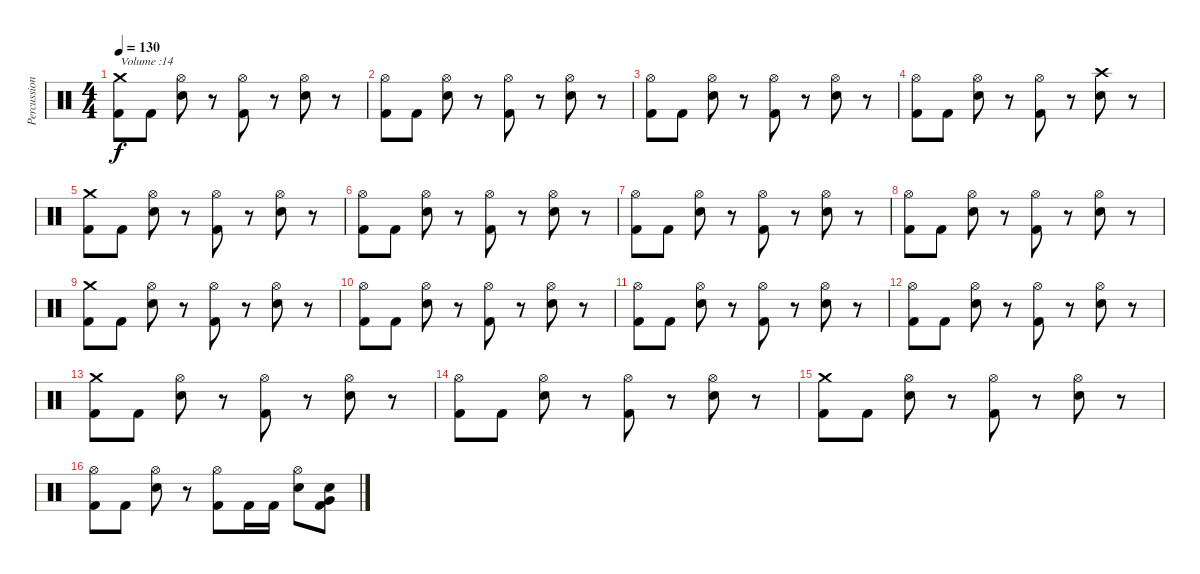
\track ("Percussions" "Percussion") {instrument percussion}
\staff {score}
\articulation defaults
\ts (4 4)
\tempo 130
\clef neutral
\ks c
("Crash medium (hit)" "Kick (hit) 2").8{txt "Volume :14" dy f} "Kick (hit) 2".8 ("Hi-Hat (open)" "Electric Snare (hit)").8 r.8 ("Hi-Hat (open)" "Kick (hit) 2").8 r.8 ("Hi-Hat (open)" "Electric Snare (hit)").8 r.8 |
("Hi-Hat (open)" "Kick (hit) 2").8 "Kick (hit) 2".8 ("Hi-Hat (open)" "Electric Snare (hit)").8 r.8 ("Hi-Hat (open)" "Kick (hit) 2").8 r.8 ("Hi-Hat (open)" "Electric Snare (hit)").8 r.8 |
("Hi-Hat (open)" "Kick (hit) 2").8 "Kick (hit) 2".8 ("Hi-Hat (open)" "Electric Snare (hit)").8 r.8 ("Hi-Hat (open)" "Kick (hit) 2").8 r.8 ("Hi-Hat (open)" "Electric Snare (hit)").8 r.8 |
("Hi-Hat (open)" "Kick (hit) 2").8 "Kick (hit) 2".8 ("Hi-Hat (open)" "Electric Snare (hit)").8 r.8 ("Hi-Hat (open)" "Kick (hit) 2").8 r.8 ("Crash high (hit)" "Electric Snare (hit)").8 r.8 |
("Crash medium (hit)" "Kick (hit) 2").8 "Kick (hit) 2".8 ("Hi-Hat (open)" "Electric Snare (hit)").8 r.8 ("Hi-Hat (open)" "Kick (hit) 2").8 r.8 ("Hi-Hat (open)" "Electric Snare (hit)").8 r.8 |
("Hi-Hat (open)" "Kick (hit) 2").8 "Kick (hit) 2".8 ("Hi-Hat (open)" "Electric Snare (hit)").8 r.8 ("Hi-Hat (open)" "Kick (hit) 2").8 r.8 ("Hi-Hat (open)" "Electric Snare (hit)").8 r.8 |
("Hi-Hat (open)" "Kick (hit) 2").8 "Kick (hit) 2".8 ("Hi-Hat (open)" "Electric Snare (hit)").8 r.8 ("Hi-Hat (open)" "Kick (hit) 2").8 r.8 ("Hi-Hat (open)" "Electric Snare (hit)").8 r.8 |
("Hi-Hat (open)" "Kick (hit) 2").8 "Kick (hit) 2".8 ("Hi-Hat (open)" "Electric Snare (hit)").8 r.8 ("Hi-Hat (open)" "Kick (hit) 2").8 r.8 ("Hi-Hat (open)" "Electric Snare (hit)").8 r.8 |
("Crash medium (hit)" "Kick (hit) 2").8 "Kick (hit) 2".8 ("Hi-Hat (open)" "Electric Snare (hit)").8 r.8 ("Hi-Hat (open)" "Kick (hit) 2").8 r.8 ("Hi-Hat (open)" "Electric Snare (hit)").8 r.8 |
("Hi-Hat (open)" "Kick (hit) 2").8 "Kick (hit) 2".8 ("Hi-Hat (open)" "Electric Snare (hit)").8 r.8 ("Hi-Hat (open)" "Kick (hit) 2").8 r.8 ("Hi-Hat (open)" "Electric Snare (hit)").8 r.8 |
("Hi-Hat (open)" "Kick (hit) 2").8 "Kick (hit) 2".8 ("Hi-Hat (open)" "Electric Snare (hit)").8 r.8 ("Hi-Hat (open)" "Kick (hit) 2").8 r.8 ("Hi-Hat (open)" "Electric Snare (hit)").8 r.8 |
("Hi-Hat (open)" "Kick (hit) 2").8 "Kick (hit) 2".8 ("Hi-Hat (open)" "Electric Snare (hit)").8 r.8 ("Hi-Hat (open)" "Kick (hit) 2").8 r.8 ("Hi-Hat (open)" "Electric Snare (hit)").8 r.8 |
("Crash medium (hit)" "Kick (hit) 2").8 "Kick (hit) 2".8 ("Hi-Hat (open)" "Electric Snare (hit)").8 r.8 ("Hi-Hat (open)" "Kick (hit) 2").8 r.8 ("Hi-Hat (open)" "Electric Snare (hit)").8 r.8 |
("Hi-Hat (open)" "Kick (hit) 2").8 "Kick (hit) 2".8 ("Hi-Hat (open)" "Electric Snare (hit)").8 r.8 ("Hi-Hat (open)" "Kick (hit) 2").8 r.8 ("Hi-Hat (open)" "Electric Snare (hit)").8 r.8 |
("Crash medium (hit)" "Kick (hit) 2").8 "Kick (hit) 2".8 ("Hi-Hat (open)" "Electric Snare (hit)").8 r.8 ("Hi-Hat (open)" "Kick (hit) 2").8 r.8 ("Hi-Hat (open)" "Electric Snare (hit)").8 r.8 |
("Hi-Hat (open)" "Kick (hit) 2").8 "Kick (hit) 2".8 ("Hi-Hat (open)" "Electric Snare (hit)").8 r.8 ("Hi-Hat (open)" "Kick (hit) 2").8 "Kick (hit) 2".16 "Kick (hit) 2".16 ("Hi-Hat (open)" "Electric Snare (hit)").8 ("Electric Snare (hit)" "Very Low Tom (hit)" "Kick (hit) 2").8
